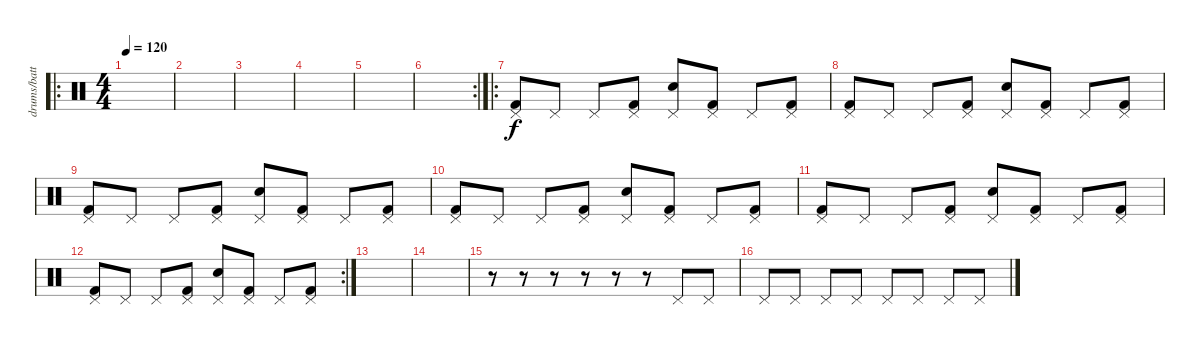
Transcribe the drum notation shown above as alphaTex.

\track ("drums/battery" "drums/batt") {instrument percussion}
\staff {score}
\articulation defaults
\ro
\ts (4 4)
\tempo 120
\clef neutral
\ks c
|
|
|
|
|
\rc 2
|
\ro
("Pedal Hi-Hat (hit)" "Kick (hit) 2").8 "Pedal Hi-Hat (hit)".8 "Pedal Hi-Hat (hit)".8 ("Pedal Hi-Hat (hit)" "Kick (hit) 2").8 ("Pedal Hi-Hat (hit)" "Electric Snare (hit)").8 ("Pedal Hi-Hat (hit)" "Kick (hit) 2").8 "Pedal Hi-Hat (hit)".8 ("Pedal Hi-Hat (hit)" "Kick (hit) 2").8 |
("Pedal Hi-Hat (hit)" "Kick (hit) 2").8 "Pedal Hi-Hat (hit)".8 "Pedal Hi-Hat (hit)".8 ("Pedal Hi-Hat (hit)" "Kick (hit) 2").8 ("Pedal Hi-Hat (hit)" "Electric Snare (hit)").8 ("Pedal Hi-Hat (hit)" "Kick (hit) 2").8 "Pedal Hi-Hat (hit)".8 ("Pedal Hi-Hat (hit)" "Kick (hit) 2").8 |
("Pedal Hi-Hat (hit)" "Kick (hit) 2").8 "Pedal Hi-Hat (hit)".8 "Pedal Hi-Hat (hit)".8 ("Pedal Hi-Hat (hit)" "Kick (hit) 2").8 ("Pedal Hi-Hat (hit)" "Electric Snare (hit)").8 ("Pedal Hi-Hat (hit)" "Kick (hit) 2").8 "Pedal Hi-Hat (hit)".8 ("Pedal Hi-Hat (hit)" "Kick (hit) 2").8 |
("Pedal Hi-Hat (hit)" "Kick (hit) 2").8 "Pedal Hi-Hat (hit)".8 "Pedal Hi-Hat (hit)".8 ("Pedal Hi-Hat (hit)" "Kick (hit) 2").8 ("Pedal Hi-Hat (hit)" "Electric Snare (hit)").8 ("Pedal Hi-Hat (hit)" "Kick (hit) 2").8 "Pedal Hi-Hat (hit)".8 ("Pedal Hi-Hat (hit)" "Kick (hit) 2").8 |
("Pedal Hi-Hat (hit)" "Kick (hit) 2").8 "Pedal Hi-Hat (hit)".8 "Pedal Hi-Hat (hit)".8 ("Pedal Hi-Hat (hit)" "Kick (hit) 2").8 ("Pedal Hi-Hat (hit)" "Electric Snare (hit)").8 ("Pedal Hi-Hat (hit)" "Kick (hit) 2").8 "Pedal Hi-Hat (hit)".8 ("Pedal Hi-Hat (hit)" "Kick (hit) 2").8 |
\rc 2
("Pedal Hi-Hat (hit)" "Kick (hit) 2").8 "Pedal Hi-Hat (hit)".8 "Pedal Hi-Hat (hit)".8 ("Pedal Hi-Hat (hit)" "Kick (hit) 2").8 ("Pedal Hi-Hat (hit)" "Electric Snare (hit)").8 ("Pedal Hi-Hat (hit)" "Kick (hit) 2").8 "Pedal Hi-Hat (hit)".8 ("Pedal Hi-Hat (hit)" "Kick (hit) 2").8 |
|
|
r.8 r.8 r.8 r.8 r.8 r.8 "Pedal Hi-Hat (hit)".8 "Pedal Hi-Hat (hit)".8 |
"Pedal Hi-Hat (hit)".8 "Pedal Hi-Hat (hit)".8 "Pedal Hi-Hat (hit)".8 "Pedal Hi-Hat (hit)".8 "Pedal Hi-Hat (hit)".8 "Pedal Hi-Hat (hit)".8 "Pedal Hi-Hat (hit)".8 "Pedal Hi-Hat (hit)".8
